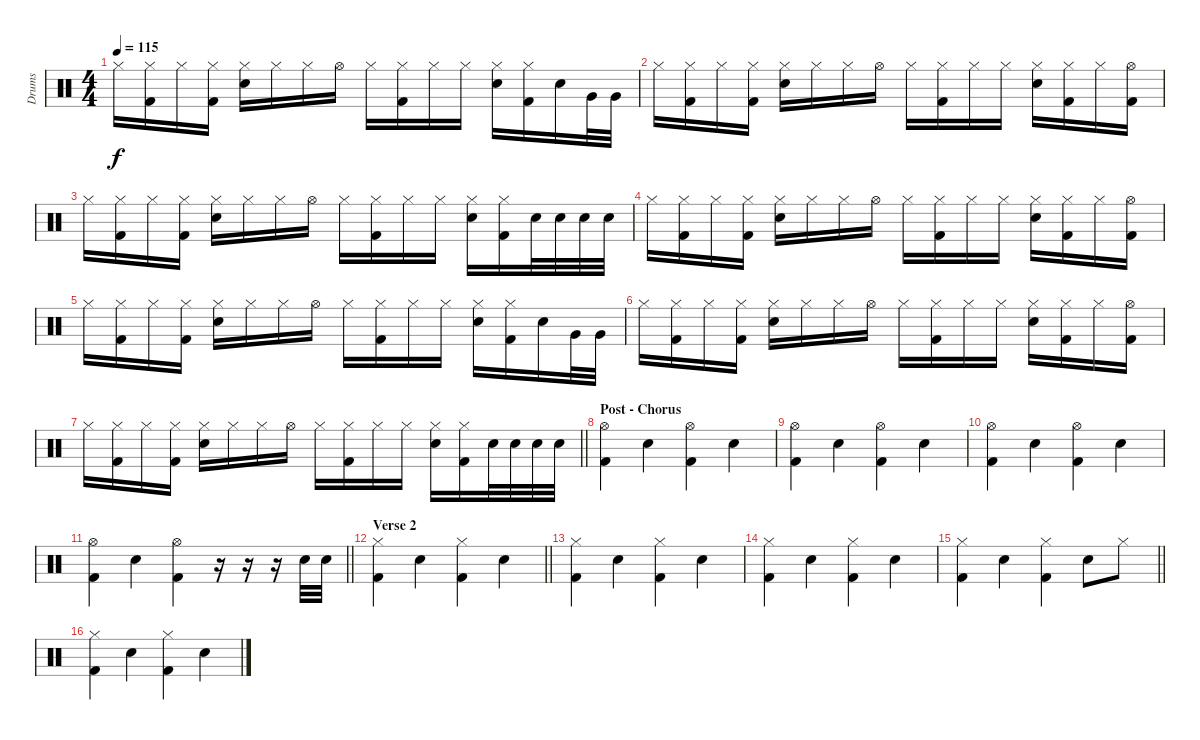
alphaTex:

\track ("Drums" "Drums") {instrument percussion}
\staff {score}
\articulation defaults
\ts (4 4)
\tempo 115
\clef neutral
\ks c "Hi-Hat (closed)".16{dy f}
("Hi-Hat (closed)" "Kick (hit) 2").16 "Hi-Hat (closed)".16 ("Hi-Hat (closed)" "Kick (hit) 2").16 ("Hi-Hat (closed)" "Electric Snare (hit)").16 "Hi-Hat (closed)".16 "Hi-Hat (closed)".16 "Hi-Hat (open)".16 "Hi-Hat (closed)".16 ("Hi-Hat (closed)" "Kick (hit) 2").16 "Hi-Hat (closed)".16 "Hi-Hat (closed)".16 ("Hi-Hat (closed)" "Electric Snare (hit)").16 ("Hi-Hat (closed)" "Kick (hit) 2").16 "Electric Snare (hit)".16 "Very Low Tom (hit)".32 "Very Low Tom (hit)".32 |
"Hi-Hat (closed)".16 ("Hi-Hat (closed)" "Kick (hit) 2").16 "Hi-Hat (closed)".16 ("Hi-Hat (closed)" "Kick (hit) 2").16 ("Hi-Hat (closed)" "Electric Snare (hit)").16 "Hi-Hat (closed)".16 "Hi-Hat (closed)".16 "Hi-Hat (open)".16 "Hi-Hat (closed)".16 ("Hi-Hat (closed)" "Kick (hit) 2").16 "Hi-Hat (closed)".16 "Hi-Hat (closed)".16 ("Hi-Hat (closed)" "Electric Snare (hit)").16 ("Hi-Hat (closed)" "Kick (hit) 2").16 "Hi-Hat (closed)".16 ("Hi-Hat (open)" "Kick (hit) 2").16 |
"Hi-Hat (closed)".16 ("Hi-Hat (closed)" "Kick (hit) 2").16 "Hi-Hat (closed)".16 ("Hi-Hat (closed)" "Kick (hit) 2").16 ("Hi-Hat (closed)" "Electric Snare (hit)").16 "Hi-Hat (closed)".16 "Hi-Hat (closed)".16 "Hi-Hat (open)".16 "Hi-Hat (closed)".16 ("Hi-Hat (closed)" "Kick (hit) 2").16 "Hi-Hat (closed)".16 "Hi-Hat (closed)".16 ("Hi-Hat (closed)" "Electric Snare (hit)").16 ("Hi-Hat (closed)" "Kick (hit) 2").16 "Electric Snare (hit)".32 "Electric Snare (hit)".32 "Electric Snare (hit)".32 "Electric Snare (hit)".32 |
"Hi-Hat (closed)".16 ("Hi-Hat (closed)" "Kick (hit) 2").16 "Hi-Hat (closed)".16 ("Hi-Hat (closed)" "Kick (hit) 2").16 ("Hi-Hat (closed)" "Electric Snare (hit)").16 "Hi-Hat (closed)".16 "Hi-Hat (closed)".16 "Hi-Hat (open)".16 "Hi-Hat (closed)".16 ("Hi-Hat (closed)" "Kick (hit) 2").16 "Hi-Hat (closed)".16 "Hi-Hat (closed)".16 ("Hi-Hat (closed)" "Electric Snare (hit)").16 ("Hi-Hat (closed)" "Kick (hit) 2").16 "Hi-Hat (closed)".16 ("Hi-Hat (open)" "Kick (hit) 2").16 |
"Hi-Hat (closed)".16 ("Hi-Hat (closed)" "Kick (hit) 2").16 "Hi-Hat (closed)".16 ("Hi-Hat (closed)" "Kick (hit) 2").16 ("Hi-Hat (closed)" "Electric Snare (hit)").16 "Hi-Hat (closed)".16 "Hi-Hat (closed)".16 "Hi-Hat (open)".16 "Hi-Hat (closed)".16 ("Hi-Hat (closed)" "Kick (hit) 2").16 "Hi-Hat (closed)".16 "Hi-Hat (closed)".16 ("Hi-Hat (closed)" "Electric Snare (hit)").16 ("Hi-Hat (closed)" "Kick (hit) 2").16 "Electric Snare (hit)".16 "Very Low Tom (hit)".32 "Very Low Tom (hit)".32 |
"Hi-Hat (closed)".16 ("Hi-Hat (closed)" "Kick (hit) 2").16 "Hi-Hat (closed)".16 ("Hi-Hat (closed)" "Kick (hit) 2").16 ("Hi-Hat (closed)" "Electric Snare (hit)").16 "Hi-Hat (closed)".16 "Hi-Hat (closed)".16 "Hi-Hat (open)".16 "Hi-Hat (closed)".16 ("Hi-Hat (closed)" "Kick (hit) 2").16 "Hi-Hat (closed)".16 "Hi-Hat (closed)".16 ("Hi-Hat (closed)" "Electric Snare (hit)").16 ("Hi-Hat (closed)" "Kick (hit) 2").16 "Hi-Hat (closed)".16 ("Hi-Hat (open)" "Kick (hit) 2").16 |
\barLineRight lightlight "Hi-Hat (closed)".16
("Hi-Hat (closed)" "Kick (hit) 2").16 "Hi-Hat (closed)".16 ("Hi-Hat (closed)" "Kick (hit) 2").16 ("Hi-Hat (closed)" "Electric Snare (hit)").16 "Hi-Hat (closed)".16 "Hi-Hat (closed)".16 "Hi-Hat (open)".16 "Hi-Hat (closed)".16 ("Hi-Hat (closed)" "Kick (hit) 2").16 "Hi-Hat (closed)".16 "Hi-Hat (closed)".16 ("Hi-Hat (closed)" "Electric Snare (hit)").16 ("Hi-Hat (closed)" "Kick (hit) 2").16 "Electric Snare (hit)".32 "Electric Snare (hit)".32 "Electric Snare (hit)".32 "Electric Snare (hit)".32 |
\section ("" "Post - Chorus")
("Hi-Hat (open)" "Kick (hit) 2").4 "Electric Snare (hit)".4 ("Hi-Hat (open)" "Kick (hit) 2").4 "Electric Snare (hit)".4 |
("Hi-Hat (open)" "Kick (hit) 2").4 "Electric Snare (hit)".4 ("Hi-Hat (open)" "Kick (hit) 2").4 "Electric Snare (hit)".4 |
("Hi-Hat (open)" "Kick (hit) 2").4 "Electric Snare (hit)".4 ("Hi-Hat (open)" "Kick (hit) 2").4 "Electric Snare (hit)".4 |
\barLineRight lightlight
("Hi-Hat (open)" "Kick (hit) 2").4 "Electric Snare (hit)".4 ("Hi-Hat (open)" "Kick (hit) 2").4 r.16 r.16 r.16 "Electric Snare (hit)".32 "Electric Snare (hit)".32 |
\section ("" "Verse 2")
\barLineRight lightlight
("Hi-Hat (closed)" "Kick (hit) 2").4 "Electric Snare (hit)".4 ("Hi-Hat (closed)" "Kick (hit) 2").4 "Electric Snare (hit)".4 |
("Hi-Hat (closed)" "Kick (hit) 2").4 "Electric Snare (hit)".4 ("Hi-Hat (closed)" "Kick (hit) 2").4 "Electric Snare (hit)".4 |
("Hi-Hat (closed)" "Kick (hit) 2").4 "Electric Snare (hit)".4 ("Hi-Hat (closed)" "Kick (hit) 2").4 "Electric Snare (hit)".4 |
\barLineRight lightlight
("Hi-Hat (closed)" "Kick (hit) 2").4 "Electric Snare (hit)".4 ("Hi-Hat (closed)" "Kick (hit) 2").4 "Electric Snare (hit)".8 "Hi-Hat (closed)".8 |
("Hi-Hat (closed)" "Kick (hit) 2").4 "Electric Snare (hit)".4 ("Hi-Hat (closed)" "Kick (hit) 2").4 "Electric Snare (hit)".4
